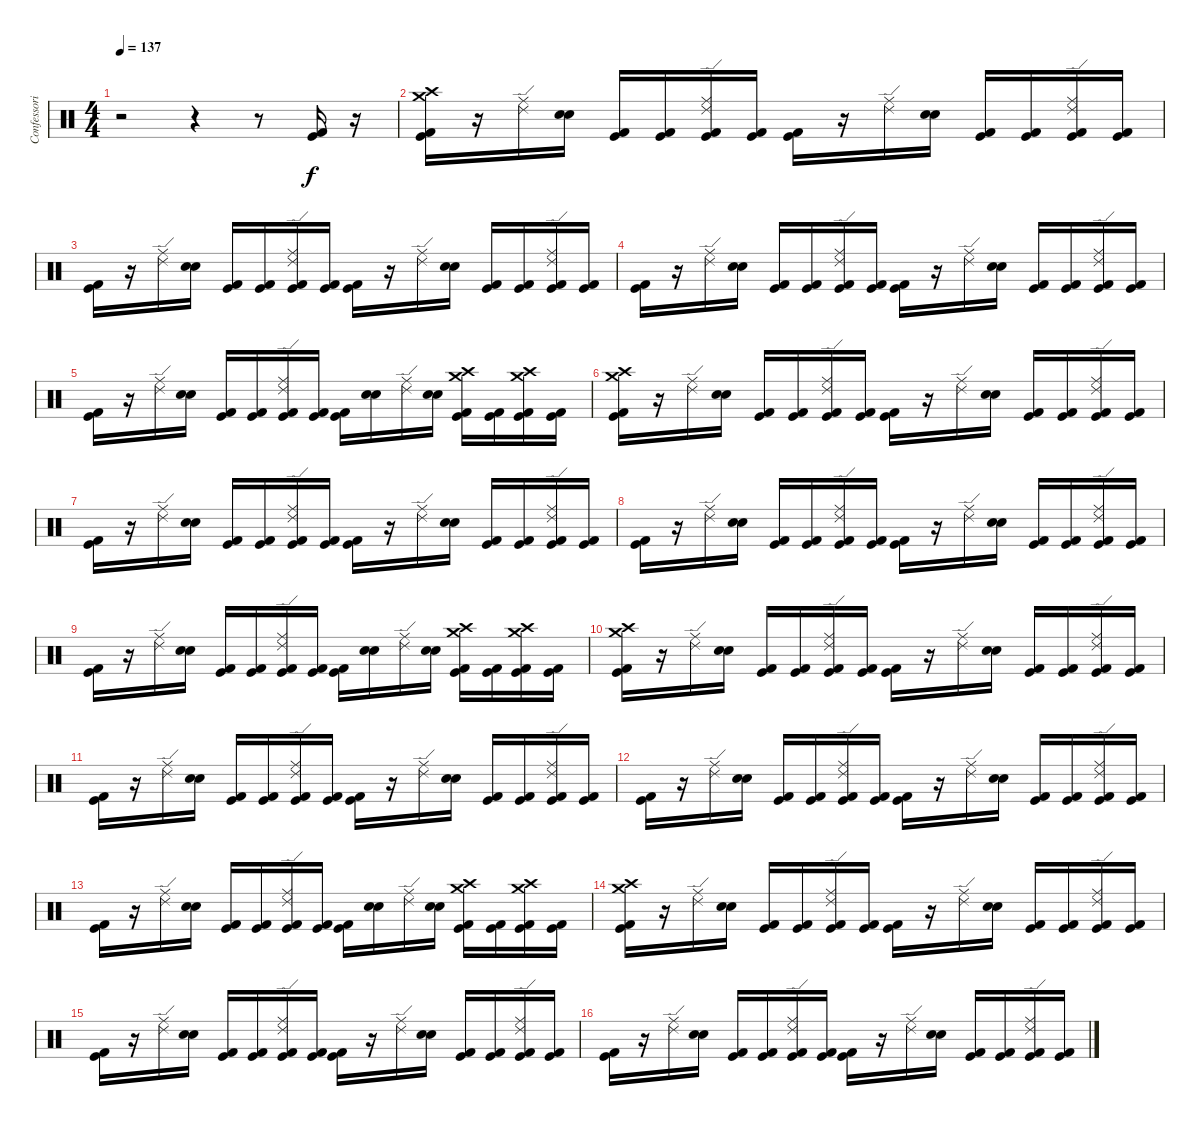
\track ("Confessori" "Confessori") {instrument percussion}
\staff {score}
\articulation defaults
\ts (4 4)
\tempo 137
\clef neutral
\ks c
r.2{dy f} r.4 r.8 ("Kick (hit) 2" "Kick (hit)").16 r.16 |
("Crash high (hit)" "Crash medium (hit)" "Kick (hit) 2" "Kick (hit)").16 r.16 ("Ride (middle)" "Ride (edge) 2").16 ("Electric Snare (hit)" "Snare (hit) 2").16 ("Kick (hit) 2" "Kick (hit)").16 ("Kick (hit) 2" "Kick (hit)").16 ("Ride (middle)" "Ride (edge) 2" "Kick (hit) 2" "Kick (hit)").16 ("Kick (hit) 2" "Kick (hit)").16 ("Kick (hit) 2" "Kick (hit)").16 r.16 ("Ride (middle)" "Ride (edge) 2").16 ("Electric Snare (hit)" "Snare (hit) 2").16 ("Kick (hit) 2" "Kick (hit)").16 ("Kick (hit) 2" "Kick (hit)").16 ("Ride (middle)" "Ride (edge) 2" "Kick (hit) 2" "Kick (hit)").16 ("Kick (hit) 2" "Kick (hit)").16 |
("Kick (hit)" "Kick (hit) 2").16 r.16 ("Ride (middle)" "Ride (edge) 2").16 ("Electric Snare (hit)" "Snare (hit) 2").16 ("Kick (hit) 2" "Kick (hit)").16 ("Kick (hit) 2" "Kick (hit)").16 ("Ride (middle)" "Ride (edge) 2" "Kick (hit) 2" "Kick (hit)").16 ("Kick (hit) 2" "Kick (hit)").16 ("Kick (hit) 2" "Kick (hit)").16 r.16 ("Ride (middle)" "Ride (edge) 2").16 ("Electric Snare (hit)" "Snare (hit) 2").16 ("Kick (hit) 2" "Kick (hit)").16 ("Kick (hit) 2" "Kick (hit)").16 ("Ride (middle)" "Ride (edge) 2" "Kick (hit) 2" "Kick (hit)").16 ("Kick (hit) 2" "Kick (hit)").16 |
("Kick (hit)" "Kick (hit) 2").16 r.16 ("Ride (middle)" "Ride (edge) 2").16 ("Electric Snare (hit)" "Snare (hit) 2").16 ("Kick (hit) 2" "Kick (hit)").16 ("Kick (hit) 2" "Kick (hit)").16 ("Ride (middle)" "Ride (edge) 2" "Kick (hit) 2" "Kick (hit)").16 ("Kick (hit) 2" "Kick (hit)").16 ("Kick (hit) 2" "Kick (hit)").16 r.16 ("Ride (middle)" "Ride (edge) 2").16 ("Electric Snare (hit)" "Snare (hit) 2").16 ("Kick (hit) 2" "Kick (hit)").16 ("Kick (hit) 2" "Kick (hit)").16 ("Ride (middle)" "Ride (edge) 2" "Kick (hit) 2" "Kick (hit)").16 ("Kick (hit) 2" "Kick (hit)").16 |
("Kick (hit)" "Kick (hit) 2").16 r.16 ("Ride (middle)" "Ride (edge) 2").16 ("Electric Snare (hit)" "Snare (hit) 2").16 ("Kick (hit) 2" "Kick (hit)").16 ("Kick (hit) 2" "Kick (hit)").16 ("Ride (middle)" "Ride (edge) 2" "Kick (hit) 2" "Kick (hit)").16 ("Kick (hit) 2" "Kick (hit)").16 ("Kick (hit) 2" "Kick (hit)").16 ("Electric Snare (hit)" "Snare (hit) 2").16 ("Ride (middle)" "Ride (edge) 2").16 ("Electric Snare (hit)" "Snare (hit) 2").16 ("Crash high (hit)" "Crash medium (hit)" "Kick (hit) 2" "Kick (hit)").16 ("Kick (hit) 2" "Kick (hit)").16 ("Crash high (hit)" "Crash medium (hit)" "Kick (hit) 2" "Kick (hit)").16 ("Kick (hit) 2" "Kick (hit)").16 |
("Crash high (hit)" "Crash medium (hit)" "Kick (hit) 2" "Kick (hit)").16 r.16 ("Ride (middle)" "Ride (edge) 2").16 ("Electric Snare (hit)" "Snare (hit) 2").16 ("Kick (hit) 2" "Kick (hit)").16 ("Kick (hit) 2" "Kick (hit)").16 ("Ride (middle)" "Ride (edge) 2" "Kick (hit) 2" "Kick (hit)").16 ("Kick (hit) 2" "Kick (hit)").16 ("Kick (hit) 2" "Kick (hit)").16 r.16 ("Ride (middle)" "Ride (edge) 2").16 ("Electric Snare (hit)" "Snare (hit) 2").16 ("Kick (hit) 2" "Kick (hit)").16 ("Kick (hit) 2" "Kick (hit)").16 ("Ride (middle)" "Ride (edge) 2" "Kick (hit) 2" "Kick (hit)").16 ("Kick (hit) 2" "Kick (hit)").16 |
("Kick (hit)" "Kick (hit) 2").16 r.16 ("Ride (middle)" "Ride (edge) 2").16 ("Electric Snare (hit)" "Snare (hit) 2").16 ("Kick (hit) 2" "Kick (hit)").16 ("Kick (hit) 2" "Kick (hit)").16 ("Ride (middle)" "Ride (edge) 2" "Kick (hit) 2" "Kick (hit)").16 ("Kick (hit) 2" "Kick (hit)").16 ("Kick (hit) 2" "Kick (hit)").16 r.16 ("Ride (middle)" "Ride (edge) 2").16 ("Electric Snare (hit)" "Snare (hit) 2").16 ("Kick (hit) 2" "Kick (hit)").16 ("Kick (hit) 2" "Kick (hit)").16 ("Ride (middle)" "Ride (edge) 2" "Kick (hit) 2" "Kick (hit)").16 ("Kick (hit) 2" "Kick (hit)").16 |
("Kick (hit)" "Kick (hit) 2").16 r.16 ("Ride (middle)" "Ride (edge) 2").16 ("Electric Snare (hit)" "Snare (hit) 2").16 ("Kick (hit) 2" "Kick (hit)").16 ("Kick (hit) 2" "Kick (hit)").16 ("Ride (middle)" "Ride (edge) 2" "Kick (hit) 2" "Kick (hit)").16 ("Kick (hit) 2" "Kick (hit)").16 ("Kick (hit) 2" "Kick (hit)").16 r.16 ("Ride (middle)" "Ride (edge) 2").16 ("Electric Snare (hit)" "Snare (hit) 2").16 ("Kick (hit) 2" "Kick (hit)").16 ("Kick (hit) 2" "Kick (hit)").16 ("Ride (middle)" "Ride (edge) 2" "Kick (hit) 2" "Kick (hit)").16 ("Kick (hit) 2" "Kick (hit)").16 |
("Kick (hit)" "Kick (hit) 2").16 r.16 ("Ride (middle)" "Ride (edge) 2").16 ("Electric Snare (hit)" "Snare (hit) 2").16 ("Kick (hit) 2" "Kick (hit)").16 ("Kick (hit) 2" "Kick (hit)").16 ("Ride (middle)" "Ride (edge) 2" "Kick (hit) 2" "Kick (hit)").16 ("Kick (hit) 2" "Kick (hit)").16 ("Kick (hit) 2" "Kick (hit)").16 ("Electric Snare (hit)" "Snare (hit) 2").16 ("Ride (middle)" "Ride (edge) 2").16 ("Electric Snare (hit)" "Snare (hit) 2").16 ("Crash high (hit)" "Crash medium (hit)" "Kick (hit) 2" "Kick (hit)").16 ("Kick (hit) 2" "Kick (hit)").16 ("Crash high (hit)" "Crash medium (hit)" "Kick (hit) 2" "Kick (hit)").16 ("Kick (hit) 2" "Kick (hit)").16 |
("Crash high (hit)" "Crash medium (hit)" "Kick (hit) 2" "Kick (hit)").16 r.16 ("Ride (middle)" "Ride (edge) 2").16 ("Electric Snare (hit)" "Snare (hit) 2").16 ("Kick (hit) 2" "Kick (hit)").16 ("Kick (hit) 2" "Kick (hit)").16 ("Ride (middle)" "Ride (edge) 2" "Kick (hit) 2" "Kick (hit)").16 ("Kick (hit) 2" "Kick (hit)").16 ("Kick (hit) 2" "Kick (hit)").16 r.16 ("Ride (middle)" "Ride (edge) 2").16 ("Electric Snare (hit)" "Snare (hit) 2").16 ("Kick (hit) 2" "Kick (hit)").16 ("Kick (hit) 2" "Kick (hit)").16 ("Ride (middle)" "Ride (edge) 2" "Kick (hit) 2" "Kick (hit)").16 ("Kick (hit) 2" "Kick (hit)").16 |
("Kick (hit)" "Kick (hit) 2").16 r.16 ("Ride (middle)" "Ride (edge) 2").16 ("Electric Snare (hit)" "Snare (hit) 2").16 ("Kick (hit) 2" "Kick (hit)").16 ("Kick (hit) 2" "Kick (hit)").16 ("Ride (middle)" "Ride (edge) 2" "Kick (hit) 2" "Kick (hit)").16 ("Kick (hit) 2" "Kick (hit)").16 ("Kick (hit) 2" "Kick (hit)").16 r.16 ("Ride (middle)" "Ride (edge) 2").16 ("Electric Snare (hit)" "Snare (hit) 2").16 ("Kick (hit) 2" "Kick (hit)").16 ("Kick (hit) 2" "Kick (hit)").16 ("Ride (middle)" "Ride (edge) 2" "Kick (hit) 2" "Kick (hit)").16 ("Kick (hit) 2" "Kick (hit)").16 |
("Kick (hit)" "Kick (hit) 2").16 r.16 ("Ride (middle)" "Ride (edge) 2").16 ("Electric Snare (hit)" "Snare (hit) 2").16 ("Kick (hit) 2" "Kick (hit)").16 ("Kick (hit) 2" "Kick (hit)").16 ("Ride (middle)" "Ride (edge) 2" "Kick (hit) 2" "Kick (hit)").16 ("Kick (hit) 2" "Kick (hit)").16 ("Kick (hit) 2" "Kick (hit)").16 r.16 ("Ride (middle)" "Ride (edge) 2").16 ("Electric Snare (hit)" "Snare (hit) 2").16 ("Kick (hit) 2" "Kick (hit)").16 ("Kick (hit) 2" "Kick (hit)").16 ("Ride (middle)" "Ride (edge) 2" "Kick (hit) 2" "Kick (hit)").16 ("Kick (hit) 2" "Kick (hit)").16 |
("Kick (hit)" "Kick (hit) 2").16 r.16 ("Ride (middle)" "Ride (edge) 2").16 ("Electric Snare (hit)" "Snare (hit) 2").16 ("Kick (hit) 2" "Kick (hit)").16 ("Kick (hit) 2" "Kick (hit)").16 ("Ride (middle)" "Ride (edge) 2" "Kick (hit) 2" "Kick (hit)").16 ("Kick (hit) 2" "Kick (hit)").16 ("Kick (hit) 2" "Kick (hit)").16 ("Electric Snare (hit)" "Snare (hit) 2").16 ("Ride (middle)" "Ride (edge) 2").16 ("Electric Snare (hit)" "Snare (hit) 2").16 ("Crash high (hit)" "Crash medium (hit)" "Kick (hit) 2" "Kick (hit)").16 ("Kick (hit) 2" "Kick (hit)").16 ("Crash high (hit)" "Crash medium (hit)" "Kick (hit) 2" "Kick (hit)").16 ("Kick (hit) 2" "Kick (hit)").16 |
("Crash high (hit)" "Crash medium (hit)" "Kick (hit) 2" "Kick (hit)").16 r.16 ("Ride (middle)" "Ride (edge) 2").16 ("Electric Snare (hit)" "Snare (hit) 2").16 ("Kick (hit) 2" "Kick (hit)").16 ("Kick (hit) 2" "Kick (hit)").16 ("Ride (middle)" "Ride (edge) 2" "Kick (hit) 2" "Kick (hit)").16 ("Kick (hit) 2" "Kick (hit)").16 ("Kick (hit) 2" "Kick (hit)").16 r.16 ("Ride (middle)" "Ride (edge) 2").16 ("Electric Snare (hit)" "Snare (hit) 2").16 ("Kick (hit) 2" "Kick (hit)").16 ("Kick (hit) 2" "Kick (hit)").16 ("Ride (middle)" "Ride (edge) 2" "Kick (hit) 2" "Kick (hit)").16 ("Kick (hit) 2" "Kick (hit)").16 |
("Kick (hit)" "Kick (hit) 2").16 r.16 ("Ride (middle)" "Ride (edge) 2").16 ("Electric Snare (hit)" "Snare (hit) 2").16 ("Kick (hit) 2" "Kick (hit)").16 ("Kick (hit) 2" "Kick (hit)").16 ("Ride (middle)" "Ride (edge) 2" "Kick (hit) 2" "Kick (hit)").16 ("Kick (hit) 2" "Kick (hit)").16 ("Kick (hit) 2" "Kick (hit)").16 r.16 ("Ride (middle)" "Ride (edge) 2").16 ("Electric Snare (hit)" "Snare (hit) 2").16 ("Kick (hit) 2" "Kick (hit)").16 ("Kick (hit) 2" "Kick (hit)").16 ("Ride (middle)" "Ride (edge) 2" "Kick (hit) 2" "Kick (hit)").16 ("Kick (hit) 2" "Kick (hit)").16 |
("Kick (hit)" "Kick (hit) 2").16 r.16 ("Ride (middle)" "Ride (edge) 2").16 ("Electric Snare (hit)" "Snare (hit) 2").16 ("Kick (hit) 2" "Kick (hit)").16 ("Kick (hit) 2" "Kick (hit)").16 ("Ride (middle)" "Ride (edge) 2" "Kick (hit) 2" "Kick (hit)").16 ("Kick (hit) 2" "Kick (hit)").16 ("Kick (hit) 2" "Kick (hit)").16 r.16 ("Ride (middle)" "Ride (edge) 2").16 ("Electric Snare (hit)" "Snare (hit) 2").16 ("Kick (hit) 2" "Kick (hit)").16 ("Kick (hit) 2" "Kick (hit)").16 ("Ride (middle)" "Ride (edge) 2" "Kick (hit) 2" "Kick (hit)").16 ("Kick (hit) 2" "Kick (hit)").16
